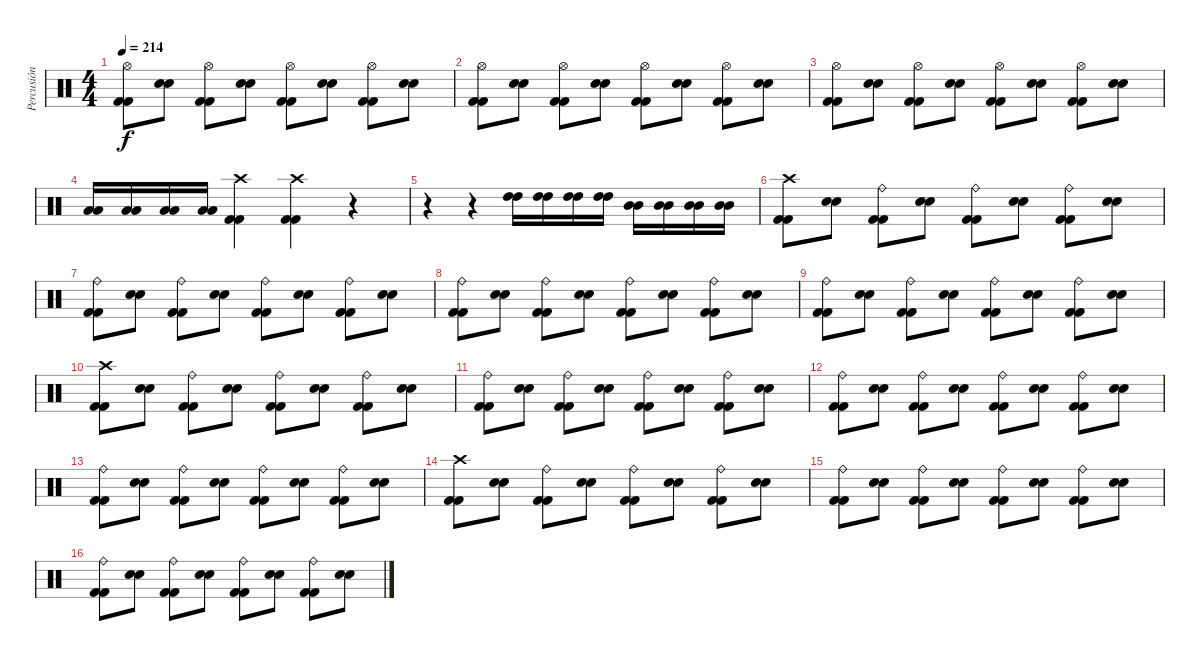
\track ("Percusión" "Percusión") {instrument percussion}
\staff {score}
\articulation defaults
\ts (4 4)
\tempo 214
\clef neutral
\ks c
("Kick (hit) 2" "Kick (hit) 2" "Hi-Hat (open)").8{dy f} ("Electric Snare (hit)" "Electric Snare (hit)").8 ("Kick (hit) 2" "Kick (hit) 2" "Hi-Hat (open)").8 ("Electric Snare (hit)" "Electric Snare (hit)").8 ("Kick (hit) 2" "Kick (hit) 2" "Hi-Hat (open)").8 ("Electric Snare (hit)" "Electric Snare (hit)").8 ("Kick (hit) 2" "Kick (hit) 2" "Hi-Hat (open)").8 ("Electric Snare (hit)" "Electric Snare (hit)").8 |
("Kick (hit) 2" "Kick (hit) 2" "Hi-Hat (open)").8 ("Electric Snare (hit)" "Electric Snare (hit)").8 ("Kick (hit) 2" "Kick (hit) 2" "Hi-Hat (open)").8 ("Electric Snare (hit)" "Electric Snare (hit)").8 ("Kick (hit) 2" "Kick (hit) 2" "Hi-Hat (open)").8 ("Electric Snare (hit)" "Electric Snare (hit)").8 ("Kick (hit) 2" "Kick (hit) 2" "Hi-Hat (open)").8 ("Electric Snare (hit)" "Electric Snare (hit)").8 |
("Kick (hit) 2" "Kick (hit) 2" "Hi-Hat (open)").8 ("Electric Snare (hit)" "Electric Snare (hit)").8 ("Kick (hit) 2" "Kick (hit) 2" "Hi-Hat (open)").8 ("Electric Snare (hit)" "Electric Snare (hit)").8 ("Kick (hit) 2" "Kick (hit) 2" "Hi-Hat (open)").8 ("Electric Snare (hit)" "Electric Snare (hit)").8 ("Kick (hit) 2" "Kick (hit) 2" "Hi-Hat (open)").8 ("Electric Snare (hit)" "Electric Snare (hit)").8 |
("Low Floor Tom (hit)" "Low Floor Tom (hit)").16 ("Low Floor Tom (hit)" "Low Floor Tom (hit)").16 ("Low Floor Tom (hit)" "Low Floor Tom (hit)").16 ("Low Floor Tom (hit)" "Low Floor Tom (hit)").16 ("Kick (hit) 2" "Kick (hit) 2" "Crash high (hit)").4 ("Kick (hit) 2" "Kick (hit) 2" "Crash high (hit)").4 r.4 |
r.4 r.4 ("High Tom (hit)" "High Tom (hit)").16 ("High Tom (hit)" "High Tom (hit)").16 ("High Tom (hit)" "High Tom (hit)").16 ("High Tom (hit)" "High Tom (hit)").16 ("Mid Tom (hit)" "Mid Tom (hit)").16 ("Mid Tom (hit)" "Mid Tom (hit)").16 ("Mid Tom (hit)" "Mid Tom (hit)").16 ("Mid Tom (hit)" "Mid Tom (hit)").16 |
("Kick (hit) 2" "Kick (hit) 2" "Crash high (hit)").8 ("Electric Snare (hit)" "Electric Snare (hit)").8 ("Kick (hit) 2" "Kick (hit) 2" "Ride (bell)").8 ("Electric Snare (hit)" "Electric Snare (hit)").8 ("Kick (hit) 2" "Kick (hit) 2" "Ride (bell)").8 ("Electric Snare (hit)" "Electric Snare (hit)").8 ("Kick (hit) 2" "Kick (hit) 2" "Ride (bell)").8 ("Electric Snare (hit)" "Electric Snare (hit)").8 |
("Kick (hit) 2" "Kick (hit) 2" "Ride (bell)").8 ("Electric Snare (hit)" "Electric Snare (hit)").8 ("Kick (hit) 2" "Kick (hit) 2" "Ride (bell)").8 ("Electric Snare (hit)" "Electric Snare (hit)").8 ("Kick (hit) 2" "Kick (hit) 2" "Ride (bell)").8 ("Electric Snare (hit)" "Electric Snare (hit)").8 ("Kick (hit) 2" "Kick (hit) 2" "Ride (bell)").8 ("Electric Snare (hit)" "Electric Snare (hit)").8 |
("Kick (hit) 2" "Kick (hit) 2" "Ride (bell)").8 ("Electric Snare (hit)" "Electric Snare (hit)").8 ("Kick (hit) 2" "Kick (hit) 2" "Ride (bell)").8 ("Electric Snare (hit)" "Electric Snare (hit)").8 ("Kick (hit) 2" "Kick (hit) 2" "Ride (bell)").8 ("Electric Snare (hit)" "Electric Snare (hit)").8 ("Kick (hit) 2" "Kick (hit) 2" "Ride (bell)").8 ("Electric Snare (hit)" "Electric Snare (hit)").8 |
("Kick (hit) 2" "Kick (hit) 2" "Ride (bell)").8 ("Electric Snare (hit)" "Electric Snare (hit)").8 ("Kick (hit) 2" "Kick (hit) 2" "Ride (bell)").8 ("Electric Snare (hit)" "Electric Snare (hit)").8 ("Kick (hit) 2" "Kick (hit) 2" "Ride (bell)").8 ("Electric Snare (hit)" "Electric Snare (hit)").8 ("Kick (hit) 2" "Kick (hit) 2" "Ride (bell)").8 ("Electric Snare (hit)" "Electric Snare (hit)").8 |
("Kick (hit) 2" "Kick (hit) 2" "Crash high (hit)").8 ("Electric Snare (hit)" "Electric Snare (hit)").8 ("Kick (hit) 2" "Kick (hit) 2" "Ride (bell)").8 ("Electric Snare (hit)" "Electric Snare (hit)").8 ("Kick (hit) 2" "Kick (hit) 2" "Ride (bell)").8 ("Electric Snare (hit)" "Electric Snare (hit)").8 ("Kick (hit) 2" "Kick (hit) 2" "Ride (bell)").8 ("Electric Snare (hit)" "Electric Snare (hit)").8 |
("Kick (hit) 2" "Kick (hit) 2" "Ride (bell)").8 ("Electric Snare (hit)" "Electric Snare (hit)").8 ("Kick (hit) 2" "Kick (hit) 2" "Ride (bell)").8 ("Electric Snare (hit)" "Electric Snare (hit)").8 ("Kick (hit) 2" "Kick (hit) 2" "Ride (bell)").8 ("Electric Snare (hit)" "Electric Snare (hit)").8 ("Kick (hit) 2" "Kick (hit) 2" "Ride (bell)").8 ("Electric Snare (hit)" "Electric Snare (hit)").8 |
("Kick (hit) 2" "Kick (hit) 2" "Ride (bell)").8 ("Electric Snare (hit)" "Electric Snare (hit)").8 ("Kick (hit) 2" "Kick (hit) 2" "Ride (bell)").8 ("Electric Snare (hit)" "Electric Snare (hit)").8 ("Kick (hit) 2" "Kick (hit) 2" "Ride (bell)").8 ("Electric Snare (hit)" "Electric Snare (hit)").8 ("Kick (hit) 2" "Kick (hit) 2" "Ride (bell)").8 ("Electric Snare (hit)" "Electric Snare (hit)").8 |
("Kick (hit) 2" "Kick (hit) 2" "Ride (bell)").8 ("Electric Snare (hit)" "Electric Snare (hit)").8 ("Kick (hit) 2" "Kick (hit) 2" "Ride (bell)").8 ("Electric Snare (hit)" "Electric Snare (hit)").8 ("Kick (hit) 2" "Kick (hit) 2" "Ride (bell)").8 ("Electric Snare (hit)" "Electric Snare (hit)").8 ("Kick (hit) 2" "Kick (hit) 2" "Ride (bell)").8 ("Electric Snare (hit)" "Electric Snare (hit)").8 |
("Kick (hit) 2" "Kick (hit) 2" "Crash high (hit)").8 ("Electric Snare (hit)" "Electric Snare (hit)").8 ("Kick (hit) 2" "Kick (hit) 2" "Ride (bell)").8 ("Electric Snare (hit)" "Electric Snare (hit)").8 ("Kick (hit) 2" "Kick (hit) 2" "Ride (bell)").8 ("Electric Snare (hit)" "Electric Snare (hit)").8 ("Kick (hit) 2" "Kick (hit) 2" "Ride (bell)").8 ("Electric Snare (hit)" "Electric Snare (hit)").8 |
("Kick (hit) 2" "Kick (hit) 2" "Ride (bell)").8 ("Electric Snare (hit)" "Electric Snare (hit)").8 ("Kick (hit) 2" "Kick (hit) 2" "Ride (bell)").8 ("Electric Snare (hit)" "Electric Snare (hit)").8 ("Kick (hit) 2" "Kick (hit) 2" "Ride (bell)").8 ("Electric Snare (hit)" "Electric Snare (hit)").8 ("Kick (hit) 2" "Kick (hit) 2" "Ride (bell)").8 ("Electric Snare (hit)" "Electric Snare (hit)").8 |
("Kick (hit) 2" "Kick (hit) 2" "Ride (bell)").8 ("Electric Snare (hit)" "Electric Snare (hit)").8 ("Kick (hit) 2" "Kick (hit) 2" "Ride (bell)").8 ("Electric Snare (hit)" "Electric Snare (hit)").8 ("Kick (hit) 2" "Kick (hit) 2" "Ride (bell)").8 ("Electric Snare (hit)" "Electric Snare (hit)").8 ("Kick (hit) 2" "Kick (hit) 2" "Ride (bell)").8 ("Electric Snare (hit)" "Electric Snare (hit)").8
